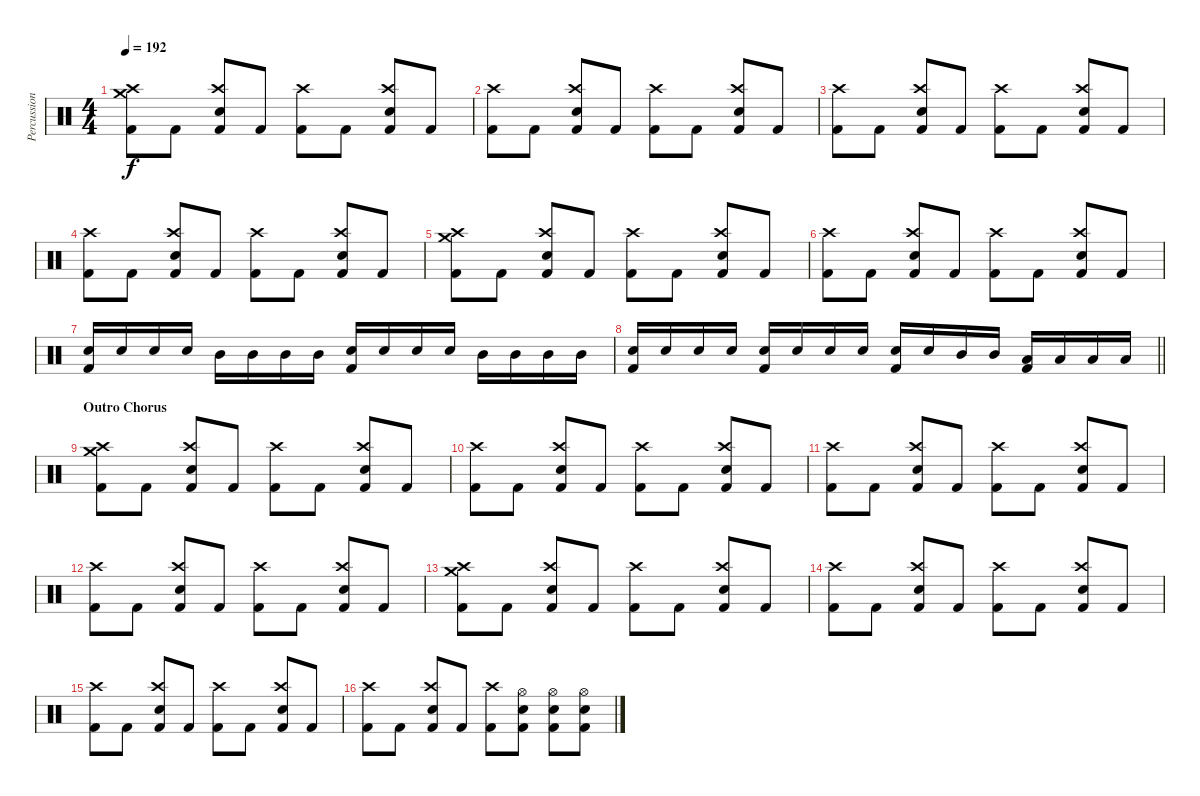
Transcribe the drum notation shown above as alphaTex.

\track ("Percussion" "Percussion") {instrument percussion}
\staff {score}
\articulation defaults
\ts (4 4)
\tempo 192
\clef neutral
\ks aminor
("Kick (hit) 2" "Crash medium (hit)" "Crash high (hit)").8{dy f} "Kick (hit) 2".8 ("Kick (hit) 2" "Snare (hit) 2" "Crash high (hit)").8 "Kick (hit) 2".8 ("Kick (hit) 2" "Crash high (hit)").8 "Kick (hit) 2".8 ("Kick (hit) 2" "Snare (hit) 2" "Crash high (hit)").8 "Kick (hit) 2".8 |
("Kick (hit) 2" "Crash high (hit)").8 "Kick (hit) 2".8 ("Kick (hit) 2" "Snare (hit) 2" "Crash high (hit)").8 "Kick (hit) 2".8 ("Kick (hit) 2" "Crash high (hit)").8 "Kick (hit) 2".8 ("Kick (hit) 2" "Snare (hit) 2" "Crash high (hit)").8 "Kick (hit) 2".8 |
("Kick (hit) 2" "Crash high (hit)").8 "Kick (hit) 2".8 ("Kick (hit) 2" "Snare (hit) 2" "Crash high (hit)").8 "Kick (hit) 2".8 ("Kick (hit) 2" "Crash high (hit)").8 "Kick (hit) 2".8 ("Kick (hit) 2" "Snare (hit) 2" "Crash high (hit)").8 "Kick (hit) 2".8 |
("Kick (hit) 2" "Crash high (hit)").8 "Kick (hit) 2".8 ("Kick (hit) 2" "Snare (hit) 2" "Crash high (hit)").8 "Kick (hit) 2".8 ("Kick (hit) 2" "Crash high (hit)").8 "Kick (hit) 2".8 ("Kick (hit) 2" "Snare (hit) 2" "Crash high (hit)").8 "Kick (hit) 2".8 |
("Kick (hit) 2" "Crash medium (hit)" "Crash high (hit)").8 "Kick (hit) 2".8 ("Kick (hit) 2" "Snare (hit) 2" "Crash high (hit)").8 "Kick (hit) 2".8 ("Kick (hit) 2" "Crash high (hit)").8 "Kick (hit) 2".8 ("Kick (hit) 2" "Snare (hit) 2" "Crash high (hit)").8 "Kick (hit) 2".8 |
("Kick (hit) 2" "Crash high (hit)").8 "Kick (hit) 2".8 ("Kick (hit) 2" "Snare (hit) 2" "Crash high (hit)").8 "Kick (hit) 2".8 ("Kick (hit) 2" "Crash high (hit)").8 "Kick (hit) 2".8 ("Kick (hit) 2" "Snare (hit) 2" "Crash high (hit)").8 "Kick (hit) 2".8 |
("Kick (hit) 2" "Snare (hit) 2").16 "Snare (hit) 2".16 "Snare (hit) 2".16 "Snare (hit) 2".16 "Mid Tom (hit)".16 "Mid Tom (hit)".16 "Mid Tom (hit)".16 "Mid Tom (hit)".16 ("Kick (hit) 2" "Snare (hit) 2").16 "Snare (hit) 2".16 "Snare (hit) 2".16 "Snare (hit) 2".16 "Mid Tom (hit)".16 "Mid Tom (hit)".16 "Mid Tom (hit)".16 "Mid Tom (hit)".16 |
\barLineRight lightlight
("Kick (hit) 2" "Snare (hit) 2").16 "Snare (hit) 2".16 "Snare (hit) 2".16 "Snare (hit) 2".16 ("Kick (hit) 2" "Snare (hit) 2").16 "Snare (hit) 2".16 "Snare (hit) 2".16 "Snare (hit) 2".16 ("Kick (hit) 2" "Snare (hit) 2").16 "Snare (hit) 2".16 "Mid Tom (hit)".16 "Mid Tom (hit)".16 ("Kick (hit) 2" "Low Tom (hit)").16 "Low Tom (hit)".16 "Low Floor Tom (hit)".16 "Low Floor Tom (hit)".16 |
\section ("" "Outro Chorus")
("Kick (hit) 2" "Crash medium (hit)" "Crash high (hit)").8 "Kick (hit) 2".8 ("Kick (hit) 2" "Snare (hit) 2" "Crash high (hit)").8 "Kick (hit) 2".8 ("Kick (hit) 2" "Crash high (hit)").8 "Kick (hit) 2".8 ("Kick (hit) 2" "Snare (hit) 2" "Crash high (hit)").8 "Kick (hit) 2".8 |
("Kick (hit) 2" "Crash high (hit)").8 "Kick (hit) 2".8 ("Kick (hit) 2" "Snare (hit) 2" "Crash high (hit)").8 "Kick (hit) 2".8 ("Kick (hit) 2" "Crash high (hit)").8 "Kick (hit) 2".8 ("Kick (hit) 2" "Snare (hit) 2" "Crash high (hit)").8 "Kick (hit) 2".8 |
("Kick (hit) 2" "Crash high (hit)").8 "Kick (hit) 2".8 ("Kick (hit) 2" "Snare (hit) 2" "Crash high (hit)").8 "Kick (hit) 2".8 ("Kick (hit) 2" "Crash high (hit)").8 "Kick (hit) 2".8 ("Kick (hit) 2" "Snare (hit) 2" "Crash high (hit)").8 "Kick (hit) 2".8 |
("Kick (hit) 2" "Crash high (hit)").8 "Kick (hit) 2".8 ("Kick (hit) 2" "Snare (hit) 2" "Crash high (hit)").8 "Kick (hit) 2".8 ("Kick (hit) 2" "Crash high (hit)").8 "Kick (hit) 2".8 ("Kick (hit) 2" "Snare (hit) 2" "Crash high (hit)").8 "Kick (hit) 2".8 |
("Kick (hit) 2" "Crash medium (hit)" "Crash high (hit)").8 "Kick (hit) 2".8 ("Kick (hit) 2" "Snare (hit) 2" "Crash high (hit)").8 "Kick (hit) 2".8 ("Kick (hit) 2" "Crash high (hit)").8 "Kick (hit) 2".8 ("Kick (hit) 2" "Snare (hit) 2" "Crash high (hit)").8 "Kick (hit) 2".8 |
("Kick (hit) 2" "Crash high (hit)").8 "Kick (hit) 2".8 ("Kick (hit) 2" "Snare (hit) 2" "Crash high (hit)").8 "Kick (hit) 2".8 ("Kick (hit) 2" "Crash high (hit)").8 "Kick (hit) 2".8 ("Kick (hit) 2" "Snare (hit) 2" "Crash high (hit)").8 "Kick (hit) 2".8 |
("Kick (hit) 2" "Crash high (hit)").8 "Kick (hit) 2".8 ("Kick (hit) 2" "Snare (hit) 2" "Crash high (hit)").8 "Kick (hit) 2".8 ("Kick (hit) 2" "Crash high (hit)").8 "Kick (hit) 2".8 ("Kick (hit) 2" "Snare (hit) 2" "Crash high (hit)").8 "Kick (hit) 2".8 |
("Kick (hit) 2" "Crash high (hit)").8 "Kick (hit) 2".8 ("Kick (hit) 2" "Snare (hit) 2" "Crash high (hit)").8 "Kick (hit) 2".8 ("Kick (hit) 2" "Crash high (hit)").8 ("Kick (hit) 2" "Snare (hit) 2" "Hi-Hat (open)").8 ("Kick (hit) 2" "Snare (hit) 2" "Hi-Hat (open)").8 ("Kick (hit) 2" "Snare (hit) 2" "Hi-Hat (open)").8
